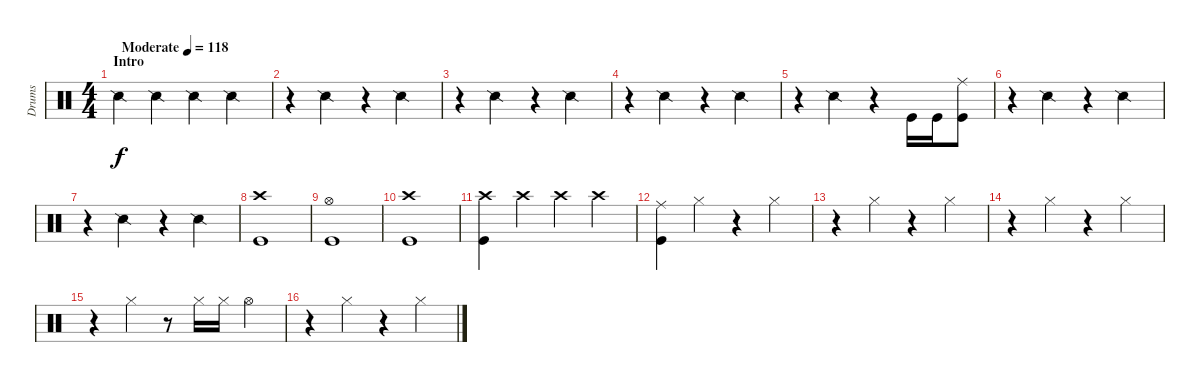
\track ("Drums" "Drums") {instrument percussion}
\staff {score}
\articulation defaults
\ts (4 4)
\section ("" "Intro")
\tempo (118 "Moderate")
\clef neutral
\ks c "Snare (side stick) 2".4{dy f} "Snare (side stick) 2".4 "Snare (side stick) 2".4 "Snare (side stick) 2".4
|
r.4 "Snare (side stick) 2".4 r.4 "Snare (side stick) 2".4 |
r.4 "Snare (side stick) 2".4 r.4 "Snare (side stick) 2".4 |
r.4 "Snare (side stick) 2".4 r.4 "Snare (side stick) 2".4 |
r.4 "Snare (side stick) 2".4 r.4 "Kick (hit)".16 "Kick (hit)".16 ("Ride (middle)" "Kick (hit)").8 |
r.4 "Snare (side stick) 2".4 r.4 "Snare (side stick) 2".4 |
r.4 "Snare (side stick) 2".4 r.4 "Snare (side stick) 2".4 |
("Crash high (hit)" "Kick (hit)").1 |
("Hi-Hat (open)" "Kick (hit)").1 |
("Crash high (hit)" "Kick (hit)").1 |
("Crash high (hit)" "Kick (hit)").4 "Crash high (hit)".4 "Crash high (hit)".4 "Crash high (hit)".4 |
("Ride (middle)" "Kick (hit)").4 "Hi-Hat (closed)".4 r.4 "Hi-Hat (closed)".4 |
r.4 "Hi-Hat (closed)".4 r.4 "Hi-Hat (closed)".4 |
r.4 "Hi-Hat (closed)".4 r.4 "Hi-Hat (closed)".4 |
r.4 "Hi-Hat (closed)".4 r.8 "Hi-Hat (closed)".16 "Hi-Hat (closed)".16 "Hi-Hat (open)".4 |
r.4 "Hi-Hat (closed)".4 r.4 "Hi-Hat (closed)".4
